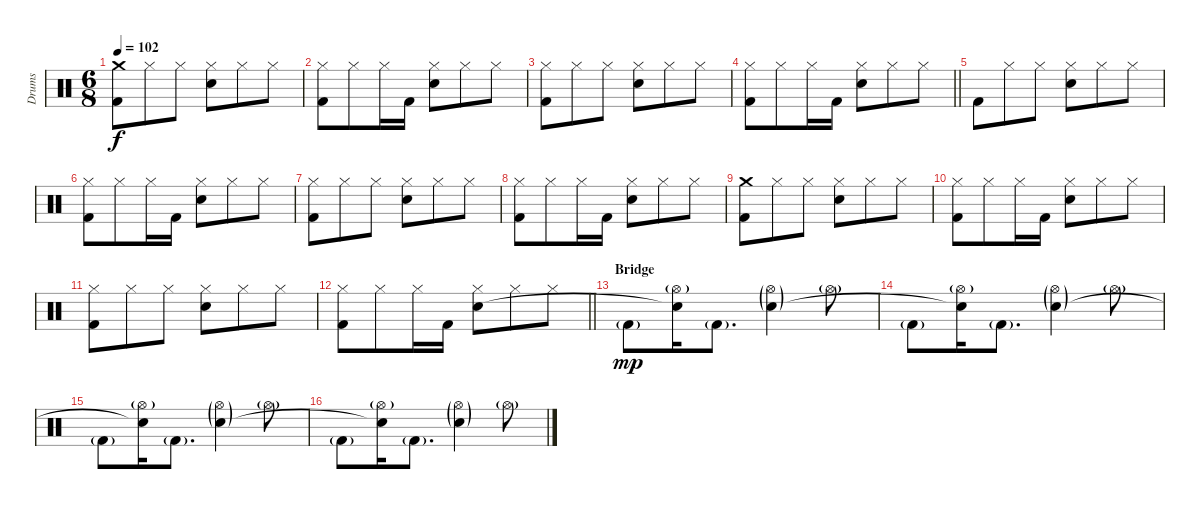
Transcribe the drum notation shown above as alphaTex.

\track ("Drums" "Drums") {instrument percussion}
\staff {score}
\articulation defaults
\ts (6 8)
\tempo 102
\clef neutral
\ks aminor
("Crash medium (hit)" "Kick (hit) 2").8{dy f} "Hi-Hat (closed)".8 "Hi-Hat (closed)".8 ("Hi-Hat (closed)" "Snare (hit) 2").8 "Hi-Hat (closed)".8 "Hi-Hat (closed)".8 |
("Hi-Hat (closed)" "Kick (hit) 2").8 "Hi-Hat (closed)".8 "Hi-Hat (closed)".16 "Kick (hit) 2".16 ("Hi-Hat (closed)" "Snare (hit) 2").8 "Hi-Hat (closed)".8 "Hi-Hat (closed)".8 |
("Hi-Hat (closed)" "Kick (hit) 2").8 "Hi-Hat (closed)".8 "Hi-Hat (closed)".8 ("Hi-Hat (closed)" "Snare (hit) 2").8 "Hi-Hat (closed)".8 "Hi-Hat (closed)".8 |
\barLineRight lightlight
("Hi-Hat (closed)" "Kick (hit) 2").8 "Hi-Hat (closed)".8 "Hi-Hat (closed)".16 "Kick (hit) 2".16 ("Hi-Hat (closed)" "Snare (hit) 2").8 "Hi-Hat (closed)".8 "Hi-Hat (closed)".8 |
"Kick (hit) 2".8 "Hi-Hat (closed)".8 "Hi-Hat (closed)".8 ("Hi-Hat (closed)" "Snare (hit) 2").8 "Hi-Hat (closed)".8 "Hi-Hat (closed)".8 |
("Hi-Hat (closed)" "Kick (hit) 2").8 "Hi-Hat (closed)".8 "Hi-Hat (closed)".16 "Kick (hit) 2".16 ("Hi-Hat (closed)" "Snare (hit) 2").8 "Hi-Hat (closed)".8 "Hi-Hat (closed)".8 |
("Hi-Hat (closed)" "Kick (hit) 2").8 "Hi-Hat (closed)".8 "Hi-Hat (closed)".8 ("Hi-Hat (closed)" "Snare (hit) 2").8 "Hi-Hat (closed)".8 "Hi-Hat (closed)".8 |
("Hi-Hat (closed)" "Kick (hit) 2").8 "Hi-Hat (closed)".8 "Hi-Hat (closed)".16 "Kick (hit) 2".16 ("Hi-Hat (closed)" "Snare (hit) 2").8 "Hi-Hat (closed)".8 "Hi-Hat (closed)".8 |
("Crash medium (hit)" "Kick (hit) 2").8 "Hi-Hat (closed)".8 "Hi-Hat (closed)".8 ("Hi-Hat (closed)" "Snare (hit) 2").8 "Hi-Hat (closed)".8 "Hi-Hat (closed)".8 |
("Hi-Hat (closed)" "Kick (hit) 2").8 "Hi-Hat (closed)".8 "Hi-Hat (closed)".16 "Kick (hit) 2".16 ("Hi-Hat (closed)" "Snare (hit) 2").8 "Hi-Hat (closed)".8 "Hi-Hat (closed)".8 |
("Hi-Hat (closed)" "Kick (hit) 2").8 "Hi-Hat (closed)".8 "Hi-Hat (closed)".8 ("Hi-Hat (closed)" "Snare (hit) 2").8 "Hi-Hat (closed)".8 "Hi-Hat (closed)".8 |
\barLineRight lightlight
("Hi-Hat (closed)" "Kick (hit) 2").8 "Hi-Hat (closed)".8 "Hi-Hat (closed)".16 "Kick (hit) 2".16 ("Hi-Hat (closed)" "Snare (hit) 2").8 "Hi-Hat (closed)".8 "Hi-Hat (closed)".8 |
\section ("" "Bridge")
"Kick (hit) 2"{g}.8{dy mp} ("Hi-Hat (open)"{g} "Snare (hit)"{t}).16 "Kick (hit) 2"{g}.8{d} ("Hi-Hat (open)"{g} "Snare (hit) 2"{g}).4 "Hi-Hat (open)"{g}.8 |
"Kick (hit) 2"{g}.8 ("Hi-Hat (open)"{g} "Snare (hit)"{t}).16 "Kick (hit) 2"{g}.8{d} ("Hi-Hat (open)"{g} "Snare (hit) 2"{g}).4 "Hi-Hat (open)"{g}.8 |
"Kick (hit) 2"{g}.8 ("Hi-Hat (open)"{g} "Snare (hit)"{t}).16 "Kick (hit) 2"{g}.8{d} ("Hi-Hat (open)"{g} "Snare (hit) 2"{g}).4 "Hi-Hat (open)"{g}.8 |
"Kick (hit) 2"{g}.8 ("Hi-Hat (open)"{g} "Snare (hit)"{t}).16 "Kick (hit) 2"{g}.8{d} ("Hi-Hat (open)"{g} "Snare (hit) 2"{g}).4 "Hi-Hat (open)"{g}.8
